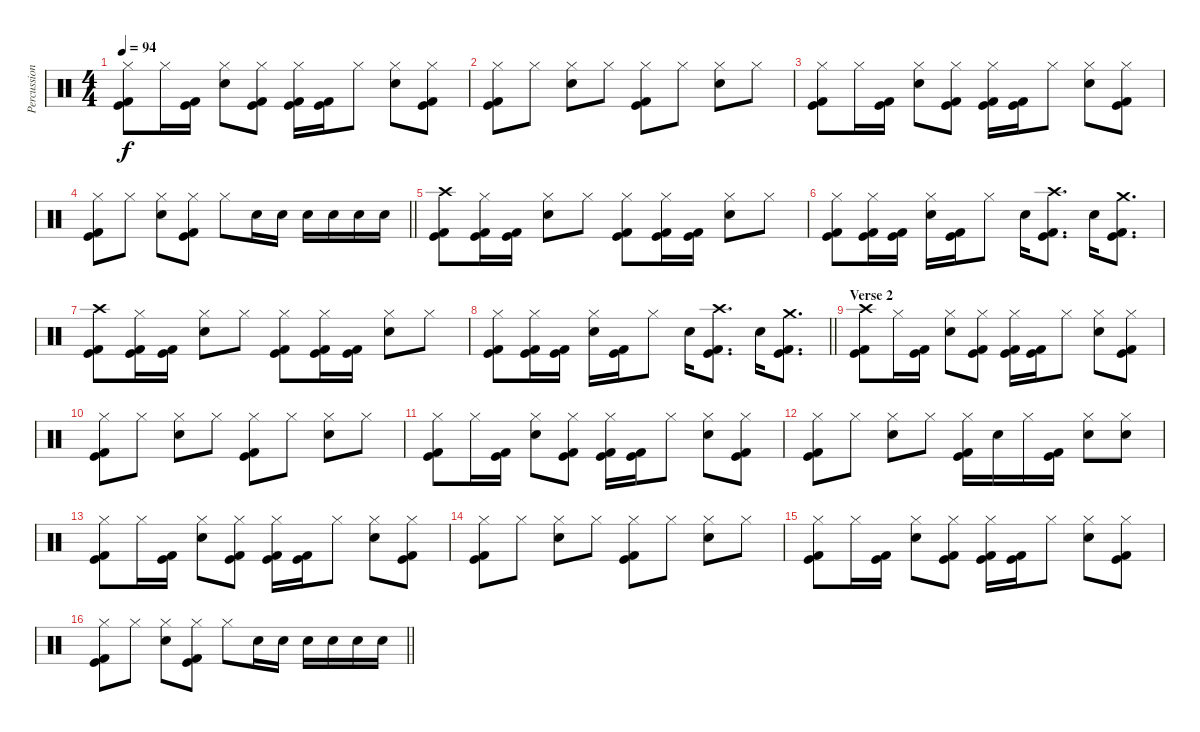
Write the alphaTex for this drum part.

\track ("Percussion" "Percussion") {instrument percussion}
\staff {score}
\articulation defaults
\ts (4 4)
\tempo 94
\clef neutral
\ks c
("Hi-Hat (closed)" "Kick (hit)" "Kick (hit) 2").8{dy f} "Hi-Hat (closed)".16 ("Kick (hit)" "Kick (hit) 2").16 ("Hi-Hat (closed)" "Electric Snare (hit)").8 ("Hi-Hat (closed)" "Kick (hit)" "Kick (hit) 2").8 ("Hi-Hat (closed)" "Kick (hit)" "Kick (hit) 2").16 ("Kick (hit)" "Kick (hit) 2").16 "Hi-Hat (closed)".8 ("Hi-Hat (closed)" "Electric Snare (hit)").8 ("Hi-Hat (closed)" "Kick (hit)" "Kick (hit) 2").8 |
("Hi-Hat (closed)" "Kick (hit)" "Kick (hit) 2").8 "Hi-Hat (closed)".8 ("Hi-Hat (closed)" "Electric Snare (hit)").8 "Hi-Hat (closed)".8 ("Hi-Hat (closed)" "Kick (hit)" "Kick (hit) 2").8 "Hi-Hat (closed)".8 ("Hi-Hat (closed)" "Electric Snare (hit)").8 "Hi-Hat (closed)".8 |
("Hi-Hat (closed)" "Kick (hit)" "Kick (hit) 2").8 "Hi-Hat (closed)".16 ("Kick (hit)" "Kick (hit) 2").16 ("Hi-Hat (closed)" "Electric Snare (hit)").8 ("Hi-Hat (closed)" "Kick (hit)" "Kick (hit) 2").8 ("Hi-Hat (closed)" "Kick (hit)" "Kick (hit) 2").16 ("Kick (hit)" "Kick (hit) 2").16 "Hi-Hat (closed)".8 ("Hi-Hat (closed)" "Electric Snare (hit)").8 ("Hi-Hat (closed)" "Kick (hit)" "Kick (hit) 2").8 |
\barLineRight lightlight
("Hi-Hat (closed)" "Kick (hit)" "Kick (hit) 2").8 "Hi-Hat (closed)".8 ("Hi-Hat (closed)" "Electric Snare (hit)").8 ("Hi-Hat (closed)" "Kick (hit)" "Kick (hit) 2").8 "Hi-Hat (closed)".8 "Electric Snare (hit)".16 "Electric Snare (hit)".16 "Electric Snare (hit)".16 "Electric Snare (hit)".16 "Electric Snare (hit)".16 "Electric Snare (hit)".16 |
\section ("" "")
("Crash high (hit)" "Kick (hit)" "Kick (hit) 2").8 ("Hi-Hat (closed)" "Kick (hit)" "Kick (hit) 2").16 ("Kick (hit)" "Kick (hit) 2").16 ("Hi-Hat (closed)" "Electric Snare (hit)").8 "Hi-Hat (closed)".8 ("Hi-Hat (closed)" "Kick (hit)" "Kick (hit) 2").8 ("Hi-Hat (closed)" "Kick (hit)" "Kick (hit) 2").16 ("Kick (hit)" "Kick (hit) 2").16 ("Hi-Hat (closed)" "Electric Snare (hit)").8 "Hi-Hat (closed)".8 |
("Hi-Hat (closed)" "Kick (hit)" "Kick (hit) 2").8 ("Hi-Hat (closed)" "Kick (hit)" "Kick (hit) 2").16 ("Kick (hit)" "Kick (hit) 2").16 ("Hi-Hat (closed)" "Electric Snare (hit)").16 ("Kick (hit)" "Kick (hit) 2").16 "Hi-Hat (closed)".8 "Electric Snare (hit)".16 ("Crash high (hit)" "Kick (hit)" "Kick (hit) 2").8{d} "Electric Snare (hit)".16 ("Crash medium (hit)" "Kick (hit)" "Kick (hit) 2").8{d} |
("Crash high (hit)" "Kick (hit)" "Kick (hit) 2").8 ("Hi-Hat (closed)" "Kick (hit)" "Kick (hit) 2").16 ("Kick (hit)" "Kick (hit) 2").16 ("Hi-Hat (closed)" "Electric Snare (hit)").8 "Hi-Hat (closed)".8 ("Hi-Hat (closed)" "Kick (hit)" "Kick (hit) 2").8 ("Hi-Hat (closed)" "Kick (hit)" "Kick (hit) 2").16 ("Kick (hit)" "Kick (hit) 2").16 ("Hi-Hat (closed)" "Electric Snare (hit)").8 "Hi-Hat (closed)".8 |
\barLineRight lightlight
("Hi-Hat (closed)" "Kick (hit)" "Kick (hit) 2").8 ("Hi-Hat (closed)" "Kick (hit)" "Kick (hit) 2").16 ("Kick (hit)" "Kick (hit) 2").16 ("Hi-Hat (closed)" "Electric Snare (hit)").16 ("Kick (hit)" "Kick (hit) 2").16 "Hi-Hat (closed)".8 "Electric Snare (hit)".16 ("Crash high (hit)" "Kick (hit)" "Kick (hit) 2").8{d} "Electric Snare (hit)".16 ("Crash medium (hit)" "Kick (hit)" "Kick (hit) 2").8{d} |
\section ("" "Verse 2")
("Crash high (hit)" "Kick (hit)" "Kick (hit) 2").8 "Hi-Hat (closed)".16 ("Kick (hit)" "Kick (hit) 2").16 ("Hi-Hat (closed)" "Electric Snare (hit)").8 ("Hi-Hat (closed)" "Kick (hit)" "Kick (hit) 2").8 ("Hi-Hat (closed)" "Kick (hit)" "Kick (hit) 2").16 ("Kick (hit)" "Kick (hit) 2").16 "Hi-Hat (closed)".8 ("Hi-Hat (closed)" "Electric Snare (hit)").8 ("Hi-Hat (closed)" "Kick (hit)" "Kick (hit) 2").8 |
("Hi-Hat (closed)" "Kick (hit)" "Kick (hit) 2").8 "Hi-Hat (closed)".8 ("Hi-Hat (closed)" "Electric Snare (hit)").8 "Hi-Hat (closed)".8 ("Hi-Hat (closed)" "Kick (hit)" "Kick (hit) 2").8 "Hi-Hat (closed)".8 ("Hi-Hat (closed)" "Electric Snare (hit)").8 "Hi-Hat (closed)".8 |
("Hi-Hat (closed)" "Kick (hit)" "Kick (hit) 2").8 "Hi-Hat (closed)".16 ("Kick (hit)" "Kick (hit) 2").16 ("Hi-Hat (closed)" "Electric Snare (hit)").8 ("Hi-Hat (closed)" "Kick (hit)" "Kick (hit) 2").8 ("Hi-Hat (closed)" "Kick (hit)" "Kick (hit) 2").16 ("Kick (hit)" "Kick (hit) 2").16 "Hi-Hat (closed)".8 ("Hi-Hat (closed)" "Electric Snare (hit)").8 ("Hi-Hat (closed)" "Kick (hit)" "Kick (hit) 2").8 |
("Hi-Hat (closed)" "Kick (hit)" "Kick (hit) 2").8 "Hi-Hat (closed)".8 ("Hi-Hat (closed)" "Electric Snare (hit)").8 "Hi-Hat (closed)".8 ("Hi-Hat (closed)" "Kick (hit)" "Kick (hit) 2").16 "Electric Snare (hit)".16 "Hi-Hat (closed)".16 ("Kick (hit)" "Kick (hit) 2").16 ("Hi-Hat (closed)" "Electric Snare (hit)").8 ("Hi-Hat (closed)" "Electric Snare (hit)").8 |
("Hi-Hat (closed)" "Kick (hit)" "Kick (hit) 2").8 "Hi-Hat (closed)".16 ("Kick (hit)" "Kick (hit) 2").16 ("Hi-Hat (closed)" "Electric Snare (hit)").8 ("Hi-Hat (closed)" "Kick (hit)" "Kick (hit) 2").8 ("Hi-Hat (closed)" "Kick (hit)" "Kick (hit) 2").16 ("Kick (hit)" "Kick (hit) 2").16 "Hi-Hat (closed)".8 ("Hi-Hat (closed)" "Electric Snare (hit)").8 ("Hi-Hat (closed)" "Kick (hit)" "Kick (hit) 2").8 |
("Hi-Hat (closed)" "Kick (hit)" "Kick (hit) 2").8 "Hi-Hat (closed)".8 ("Hi-Hat (closed)" "Electric Snare (hit)").8 "Hi-Hat (closed)".8 ("Hi-Hat (closed)" "Kick (hit)" "Kick (hit) 2").8 "Hi-Hat (closed)".8 ("Hi-Hat (closed)" "Electric Snare (hit)").8 "Hi-Hat (closed)".8 |
("Hi-Hat (closed)" "Kick (hit)" "Kick (hit) 2").8 "Hi-Hat (closed)".16 ("Kick (hit)" "Kick (hit) 2").16 ("Hi-Hat (closed)" "Electric Snare (hit)").8 ("Hi-Hat (closed)" "Kick (hit)" "Kick (hit) 2").8 ("Hi-Hat (closed)" "Kick (hit)" "Kick (hit) 2").16 ("Kick (hit)" "Kick (hit) 2").16 "Hi-Hat (closed)".8 ("Hi-Hat (closed)" "Electric Snare (hit)").8 ("Hi-Hat (closed)" "Kick (hit)" "Kick (hit) 2").8 |
\barLineRight lightlight
("Hi-Hat (closed)" "Kick (hit)" "Kick (hit) 2").8 "Hi-Hat (closed)".8 ("Hi-Hat (closed)" "Electric Snare (hit)").8 ("Hi-Hat (closed)" "Kick (hit)" "Kick (hit) 2").8 "Hi-Hat (closed)".8 "Electric Snare (hit)".16 "Electric Snare (hit)".16 "Electric Snare (hit)".16 "Electric Snare (hit)".16 "Electric Snare (hit)".16 "Electric Snare (hit)".16
